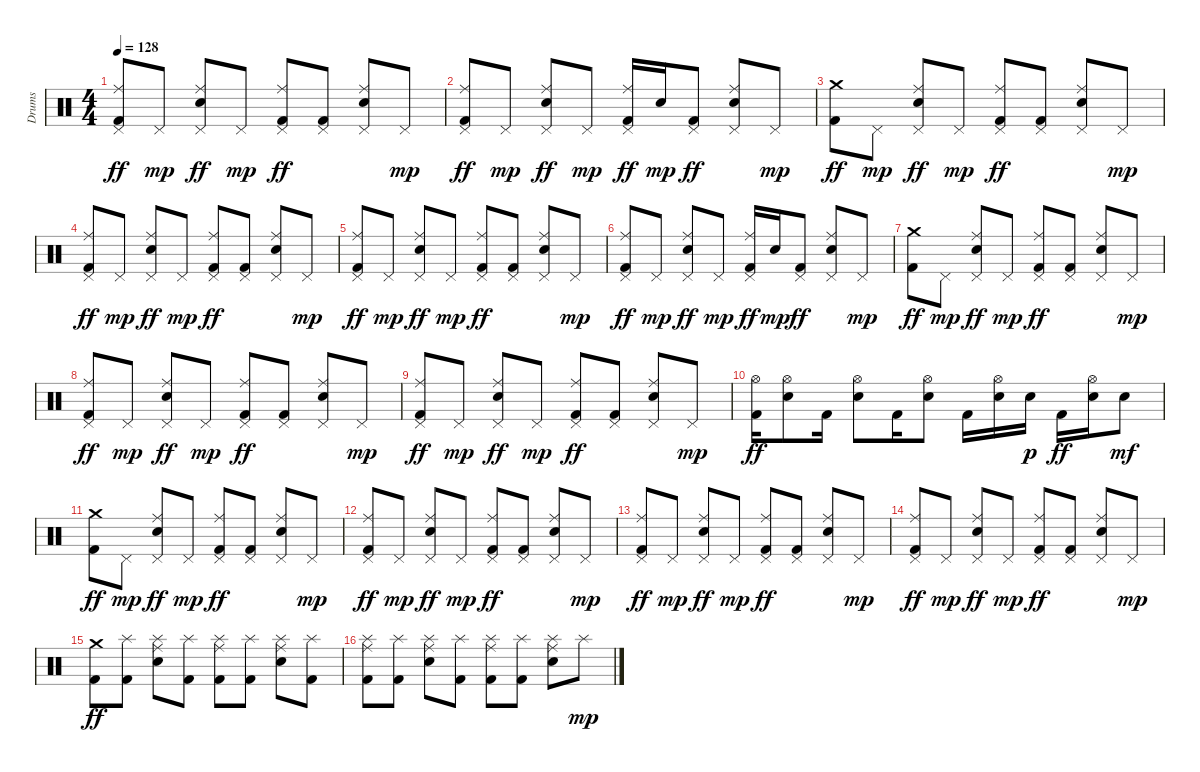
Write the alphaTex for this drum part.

\track ("Drums" "Drums") {instrument percussion}
\staff {score}
\articulation defaults
\ts (4 4)
\tempo 128
\clef neutral
\ks c
("Ride (middle)" "Pedal Hi-Hat (hit)" "Kick (hit) 2").8{dy ff} "Pedal Hi-Hat (hit)".8{dy mp} ("Ride (middle)" "Pedal Hi-Hat (hit)" "Electric Snare (hit)").8{dy ff} "Pedal Hi-Hat (hit)".8{dy mp} ("Ride (middle)" "Pedal Hi-Hat (hit)" "Kick (hit) 2").8{dy ff} ("Pedal Hi-Hat (hit)" "Kick (hit) 2").8 ("Ride (middle)" "Pedal Hi-Hat (hit)" "Electric Snare (hit)").8 "Pedal Hi-Hat (hit)".8{dy mp} |
("Ride (middle)" "Pedal Hi-Hat (hit)" "Kick (hit) 2").8{dy ff} "Pedal Hi-Hat (hit)".8{dy mp} ("Ride (middle)" "Pedal Hi-Hat (hit)" "Electric Snare (hit)").8{dy ff} "Pedal Hi-Hat (hit)".8{dy mp} ("Ride (middle)" "Pedal Hi-Hat (hit)" "Kick (hit) 2").16{dy ff} "Electric Snare (hit)".16{dy mp} ("Pedal Hi-Hat (hit)" "Kick (hit) 2").8{dy ff} ("Ride (middle)" "Pedal Hi-Hat (hit)" "Electric Snare (hit)").8 "Pedal Hi-Hat (hit)".8{dy mp} |
("Crash medium (hit)" "Kick (hit) 2").8{dy ff} "Pedal Hi-Hat (hit)".8{dy mp} ("Ride (middle)" "Pedal Hi-Hat (hit)" "Electric Snare (hit)").8{dy ff} "Pedal Hi-Hat (hit)".8{dy mp} ("Ride (middle)" "Pedal Hi-Hat (hit)" "Kick (hit) 2").8{dy ff} ("Pedal Hi-Hat (hit)" "Kick (hit) 2").8 ("Ride (middle)" "Pedal Hi-Hat (hit)" "Electric Snare (hit)").8 "Pedal Hi-Hat (hit)".8{dy mp} |
("Ride (middle)" "Pedal Hi-Hat (hit)" "Kick (hit) 2").8{dy ff} "Pedal Hi-Hat (hit)".8{dy mp} ("Ride (middle)" "Pedal Hi-Hat (hit)" "Electric Snare (hit)").8{dy ff} "Pedal Hi-Hat (hit)".8{dy mp} ("Ride (middle)" "Pedal Hi-Hat (hit)" "Kick (hit) 2").8{dy ff} ("Pedal Hi-Hat (hit)" "Kick (hit) 2").8 ("Ride (middle)" "Pedal Hi-Hat (hit)" "Electric Snare (hit)").8 "Pedal Hi-Hat (hit)".8{dy mp} |
("Ride (middle)" "Pedal Hi-Hat (hit)" "Kick (hit) 2").8{dy ff} "Pedal Hi-Hat (hit)".8{dy mp} ("Ride (middle)" "Pedal Hi-Hat (hit)" "Electric Snare (hit)").8{dy ff} "Pedal Hi-Hat (hit)".8{dy mp} ("Ride (middle)" "Pedal Hi-Hat (hit)" "Kick (hit) 2").8{dy ff} ("Pedal Hi-Hat (hit)" "Kick (hit) 2").8 ("Ride (middle)" "Pedal Hi-Hat (hit)" "Electric Snare (hit)").8 "Pedal Hi-Hat (hit)".8{dy mp} |
("Ride (middle)" "Pedal Hi-Hat (hit)" "Kick (hit) 2").8{dy ff} "Pedal Hi-Hat (hit)".8{dy mp} ("Ride (middle)" "Pedal Hi-Hat (hit)" "Electric Snare (hit)").8{dy ff} "Pedal Hi-Hat (hit)".8{dy mp} ("Ride (middle)" "Pedal Hi-Hat (hit)" "Kick (hit) 2").16{dy ff} "Electric Snare (hit)".16{dy mp} ("Pedal Hi-Hat (hit)" "Kick (hit) 2").8{dy ff} ("Ride (middle)" "Pedal Hi-Hat (hit)" "Electric Snare (hit)").8 "Pedal Hi-Hat (hit)".8{dy mp} |
("Crash medium (hit)" "Kick (hit) 2").8{dy ff} "Pedal Hi-Hat (hit)".8{dy mp} ("Ride (middle)" "Pedal Hi-Hat (hit)" "Electric Snare (hit)").8{dy ff} "Pedal Hi-Hat (hit)".8{dy mp} ("Ride (middle)" "Pedal Hi-Hat (hit)" "Kick (hit) 2").8{dy ff} ("Pedal Hi-Hat (hit)" "Kick (hit) 2").8 ("Ride (middle)" "Pedal Hi-Hat (hit)" "Electric Snare (hit)").8 "Pedal Hi-Hat (hit)".8{dy mp} |
("Ride (middle)" "Pedal Hi-Hat (hit)" "Kick (hit) 2").8{dy ff} "Pedal Hi-Hat (hit)".8{dy mp} ("Ride (middle)" "Pedal Hi-Hat (hit)" "Electric Snare (hit)").8{dy ff} "Pedal Hi-Hat (hit)".8{dy mp} ("Ride (middle)" "Pedal Hi-Hat (hit)" "Kick (hit) 2").8{dy ff} ("Pedal Hi-Hat (hit)" "Kick (hit) 2").8 ("Ride (middle)" "Pedal Hi-Hat (hit)" "Electric Snare (hit)").8 "Pedal Hi-Hat (hit)".8{dy mp} |
("Ride (middle)" "Pedal Hi-Hat (hit)" "Kick (hit) 2").8{dy ff} "Pedal Hi-Hat (hit)".8{dy mp} ("Ride (middle)" "Pedal Hi-Hat (hit)" "Electric Snare (hit)").8{dy ff} "Pedal Hi-Hat (hit)".8{dy mp} ("Ride (middle)" "Pedal Hi-Hat (hit)" "Kick (hit) 2").8{dy ff} ("Pedal Hi-Hat (hit)" "Kick (hit) 2").8 ("Ride (middle)" "Pedal Hi-Hat (hit)" "Electric Snare (hit)").8 "Pedal Hi-Hat (hit)".8{dy mp} |
("Hi-Hat (open)" "Kick (hit) 2").16{dy ff} ("Hi-Hat (open)" "Electric Snare (hit)").8 "Kick (hit) 2".16 ("Hi-Hat (open)" "Electric Snare (hit)").8 "Kick (hit) 2".16 ("Hi-Hat (open)" "Electric Snare (hit)").8 "Kick (hit) 2".16 ("Hi-Hat (open)" "Electric Snare (hit)").16 "Electric Snare (hit)".16{dy p} "Kick (hit) 2".16{dy ff} ("Hi-Hat (open)" "Electric Snare (hit)").16 "Electric Snare (hit)".8{dy mf} |
("Crash medium (hit)" "Kick (hit) 2").8{dy ff} "Pedal Hi-Hat (hit)".8{dy mp} ("Ride (middle)" "Pedal Hi-Hat (hit)" "Electric Snare (hit)").8{dy ff} "Pedal Hi-Hat (hit)".8{dy mp} ("Ride (middle)" "Pedal Hi-Hat (hit)" "Kick (hit) 2").8{dy ff} ("Pedal Hi-Hat (hit)" "Kick (hit) 2").8 ("Ride (middle)" "Pedal Hi-Hat (hit)" "Electric Snare (hit)").8 "Pedal Hi-Hat (hit)".8{dy mp} |
("Ride (middle)" "Pedal Hi-Hat (hit)" "Kick (hit) 2").8{dy ff} "Pedal Hi-Hat (hit)".8{dy mp} ("Ride (middle)" "Pedal Hi-Hat (hit)" "Electric Snare (hit)").8{dy ff} "Pedal Hi-Hat (hit)".8{dy mp} ("Ride (middle)" "Pedal Hi-Hat (hit)" "Kick (hit) 2").8{dy ff} ("Pedal Hi-Hat (hit)" "Kick (hit) 2").8 ("Ride (middle)" "Pedal Hi-Hat (hit)" "Electric Snare (hit)").8 "Pedal Hi-Hat (hit)".8{dy mp} |
("Ride (middle)" "Pedal Hi-Hat (hit)" "Kick (hit) 2").8{dy ff} "Pedal Hi-Hat (hit)".8{dy mp} ("Ride (middle)" "Pedal Hi-Hat (hit)" "Electric Snare (hit)").8{dy ff} "Pedal Hi-Hat (hit)".8{dy mp} ("Ride (middle)" "Pedal Hi-Hat (hit)" "Kick (hit) 2").8{dy ff} ("Pedal Hi-Hat (hit)" "Kick (hit) 2").8 ("Ride (middle)" "Pedal Hi-Hat (hit)" "Electric Snare (hit)").8 "Pedal Hi-Hat (hit)".8{dy mp} |
("Ride (middle)" "Pedal Hi-Hat (hit)" "Kick (hit) 2").8{dy ff} "Pedal Hi-Hat (hit)".8{dy mp} ("Ride (middle)" "Pedal Hi-Hat (hit)" "Electric Snare (hit)").8{dy ff} "Pedal Hi-Hat (hit)".8{dy mp} ("Ride (middle)" "Pedal Hi-Hat (hit)" "Kick (hit) 2").8{dy ff} ("Pedal Hi-Hat (hit)" "Kick (hit) 2").8 ("Ride (middle)" "Pedal Hi-Hat (hit)" "Electric Snare (hit)").8 "Pedal Hi-Hat (hit)".8{dy mp} |
("Crash medium (hit)" "Kick (hit) 2").8{dy ff} ("Splash (hit)" "Kick (hit) 2").8 ("Ride (middle)" "Splash (hit)" "Electric Snare (hit)").8 ("Splash (hit)" "Kick (hit) 2").8 ("Ride (middle)" "Splash (hit)" "Kick (hit) 2").8 ("Splash (hit)" "Kick (hit) 2").8 ("Ride (middle)" "Splash (hit)" "Electric Snare (hit)").8 ("Splash (hit)" "Kick (hit) 2").8 |
("Ride (middle)" "Splash (hit)" "Kick (hit) 2").8 ("Splash (hit)" "Kick (hit) 2").8 ("Ride (middle)" "Splash (hit)" "Electric Snare (hit)").8 ("Splash (hit)" "Kick (hit) 2").8 ("Ride (middle)" "Splash (hit)" "Kick (hit) 2").8 ("Splash (hit)" "Kick (hit) 2").8 ("Ride (middle)" "Splash (hit)" "Electric Snare (hit)").8 "Splash (hit)".8{dy mp}
